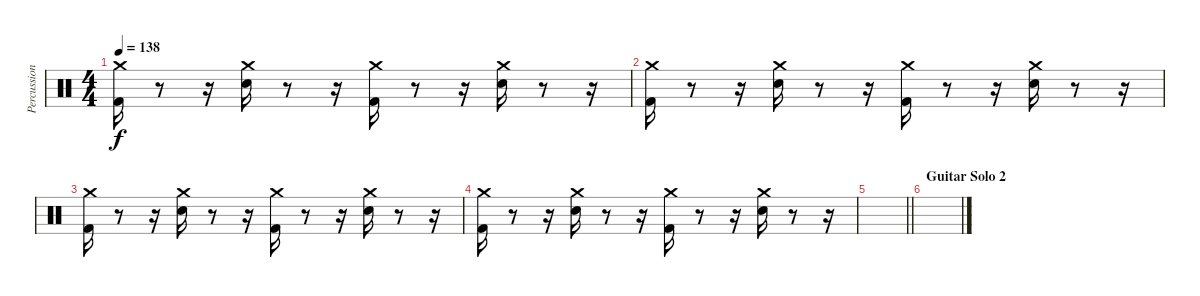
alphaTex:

\track ("Percussion" "Percussion") {instrument percussion}
\staff {score}
\articulation defaults
\ts (4 4)
\tempo 138
\clef neutral
\ks c
("Kick (hit) 2" "Crash medium (hit)").16{dy f} r.8 r.16 ("Snare (hit) 2" "Crash medium (hit)").16 r.8 r.16 ("Kick (hit) 2" "Crash medium (hit)").16 r.8 r.16 ("Snare (hit) 2" "Crash medium (hit)").16 r.8 r.16 |
("Kick (hit) 2" "Crash medium (hit)").16 r.8 r.16 ("Snare (hit) 2" "Crash medium (hit)").16 r.8 r.16 ("Kick (hit) 2" "Crash medium (hit)").16 r.8 r.16 ("Snare (hit) 2" "Crash medium (hit)").16 r.8 r.16 |
("Kick (hit) 2" "Crash medium (hit)").16 r.8 r.16 ("Snare (hit) 2" "Crash medium (hit)").16 r.8 r.16 ("Kick (hit) 2" "Crash medium (hit)").16 r.8 r.16 ("Snare (hit) 2" "Crash medium (hit)").16 r.8 r.16 |
("Kick (hit) 2" "Crash medium (hit)").16 r.8 r.16 ("Snare (hit) 2" "Crash medium (hit)").16 r.8 r.16 ("Kick (hit) 2" "Crash medium (hit)").16 r.8 r.16 ("Snare (hit) 2" "Crash medium (hit)").16 r.8 r.16 |
\barLineRight lightlight
|
\section ("" "Guitar Solo 2")
